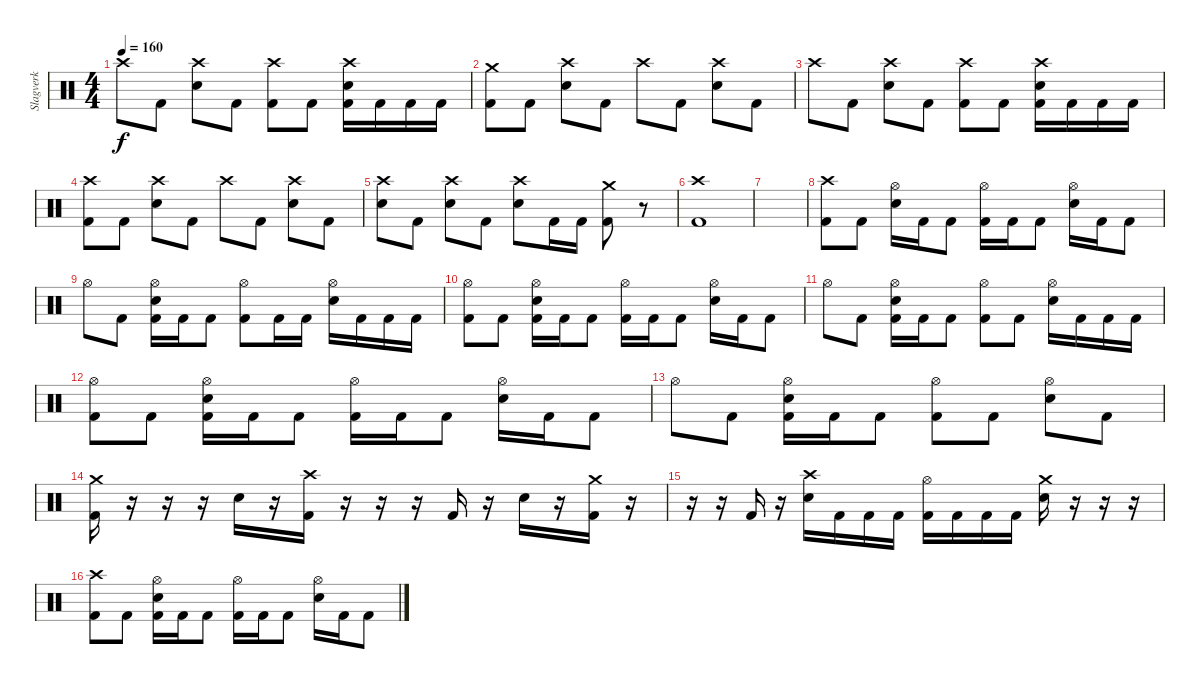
\track ("Slagverk" "Slagverk") {instrument percussion}
\staff {score}
\articulation defaults
\ts (4 4)
\tempo 160
\clef neutral
\ks c "Crash high (hit)".8{dy f} "Kick (hit) 2".8
("Crash high (hit)" "Snare (hit) 2").8 "Kick (hit) 2".8 ("Crash high (hit)" "Kick (hit) 2").8 "Kick (hit) 2".8 ("Crash high (hit)" "Snare (hit) 2" "Kick (hit) 2").16 "Kick (hit) 2".16 "Kick (hit) 2".16 "Kick (hit) 2".16 |
("Crash medium (hit)" "Kick (hit) 2").8 "Kick (hit) 2".8 ("Crash high (hit)" "Snare (hit) 2").8 "Kick (hit) 2".8 "Crash high (hit)".8 "Kick (hit) 2".8 ("Crash high (hit)" "Snare (hit) 2").8 "Kick (hit) 2".8 |
"Crash high (hit)".8 "Kick (hit) 2".8 ("Crash high (hit)" "Snare (hit) 2").8 "Kick (hit) 2".8 ("Crash high (hit)" "Kick (hit) 2").8 "Kick (hit) 2".8 ("Crash high (hit)" "Snare (hit) 2" "Kick (hit) 2").16 "Kick (hit) 2".16 "Kick (hit) 2".16 "Kick (hit) 2".16 |
("Crash high (hit)" "Kick (hit) 2").8 "Kick (hit) 2".8 ("Crash high (hit)" "Snare (hit) 2").8 "Kick (hit) 2".8 "Crash high (hit)".8 "Kick (hit) 2".8 ("Crash high (hit)" "Snare (hit) 2").8 "Kick (hit) 2".8 |
("Crash high (hit)" "Snare (hit) 2").8 "Kick (hit) 2".8 ("Crash high (hit)" "Snare (hit) 2").8 "Kick (hit) 2".8 ("Crash high (hit)" "Snare (hit) 2").8 "Kick (hit) 2".16 "Kick (hit) 2".16 ("Crash medium (hit)" "Kick (hit) 2").8 r.8 |
("Crash high (hit)" "Kick (hit) 2").1 |
|
("Crash high (hit)" "Kick (hit) 2").8 "Kick (hit) 2".8 ("Hi-Hat (open)" "Snare (hit) 2").16 "Kick (hit) 2".16 "Kick (hit) 2".8 ("Hi-Hat (open)" "Kick (hit) 2").16 "Kick (hit) 2".16 "Kick (hit) 2".8 ("Hi-Hat (open)" "Snare (hit) 2").16 "Kick (hit) 2".16 "Kick (hit) 2".8 |
"Hi-Hat (open)".8 "Kick (hit) 2".8 ("Hi-Hat (open)" "Snare (hit) 2" "Kick (hit) 2").16 "Kick (hit) 2".16 "Kick (hit) 2".8 ("Hi-Hat (open)" "Kick (hit) 2").8 "Kick (hit) 2".16 "Kick (hit) 2".16 ("Hi-Hat (open)" "Snare (hit) 2").16 "Kick (hit) 2".16 "Kick (hit) 2".16 "Kick (hit) 2".16 |
("Hi-Hat (open)" "Kick (hit) 2").8 "Kick (hit) 2".8 ("Hi-Hat (open)" "Snare (hit) 2" "Kick (hit) 2").16 "Kick (hit) 2".16 "Kick (hit) 2".8 ("Hi-Hat (open)" "Kick (hit) 2").16 "Kick (hit) 2".16 "Kick (hit) 2".8 ("Hi-Hat (open)" "Snare (hit) 2").16 "Kick (hit) 2".16 "Kick (hit) 2".8 |
"Hi-Hat (open)".8 "Kick (hit) 2".8 ("Hi-Hat (open)" "Snare (hit) 2" "Kick (hit) 2").16 "Kick (hit) 2".16 "Kick (hit) 2".8 ("Hi-Hat (open)" "Kick (hit) 2").8 "Kick (hit) 2".8 ("Hi-Hat (open)" "Snare (hit) 2").16 "Kick (hit) 2".16 "Kick (hit) 2".16 "Kick (hit) 2".16 |
("Hi-Hat (open)" "Kick (hit) 2").8 "Kick (hit) 2".8 ("Hi-Hat (open)" "Snare (hit) 2" "Kick (hit) 2").16 "Kick (hit) 2".16 "Kick (hit) 2".8 ("Hi-Hat (open)" "Kick (hit) 2").16 "Kick (hit) 2".16 "Kick (hit) 2".8 ("Hi-Hat (open)" "Snare (hit) 2").16 "Kick (hit) 2".16 "Kick (hit) 2".8 |
"Hi-Hat (open)".8 "Kick (hit) 2".8 ("Hi-Hat (open)" "Snare (hit) 2" "Kick (hit) 2").16 "Kick (hit) 2".16 "Kick (hit) 2".8 ("Hi-Hat (open)" "Kick (hit) 2").8 "Kick (hit) 2".8 ("Hi-Hat (open)" "Snare (hit) 2").8 "Kick (hit) 2".8 |
("Crash medium (hit)" "Kick (hit) 2").16 r.16 r.16 r.16 "Snare (hit) 2".16 r.16 ("Crash high (hit)" "Kick (hit) 2").16 r.16 r.16 r.16 "Kick (hit) 2".16 r.16 "Snare (hit) 2".16 r.16 ("Crash medium (hit)" "Kick (hit) 2").16 r.16 |
r.16 r.16 "Kick (hit) 2".16 r.16 ("Crash high (hit)" "Snare (hit) 2").16 "Kick (hit) 2".16 "Kick (hit) 2".16 "Kick (hit) 2".16 ("Hi-Hat (open)" "Kick (hit) 2").16 "Kick (hit) 2".16 "Kick (hit) 2".16 "Kick (hit) 2".16 ("Crash medium (hit)" "Snare (hit) 2").16 r.16 r.16 r.16 |
("Crash high (hit)" "Kick (hit) 2").8 "Kick (hit) 2".8 ("Hi-Hat (open)" "Snare (hit) 2" "Kick (hit) 2").16 "Kick (hit) 2".16 "Kick (hit) 2".8 ("Hi-Hat (open)" "Kick (hit) 2").16 "Kick (hit) 2".16 "Kick (hit) 2".8 ("Hi-Hat (open)" "Snare (hit) 2").16 "Kick (hit) 2".16 "Kick (hit) 2".8
